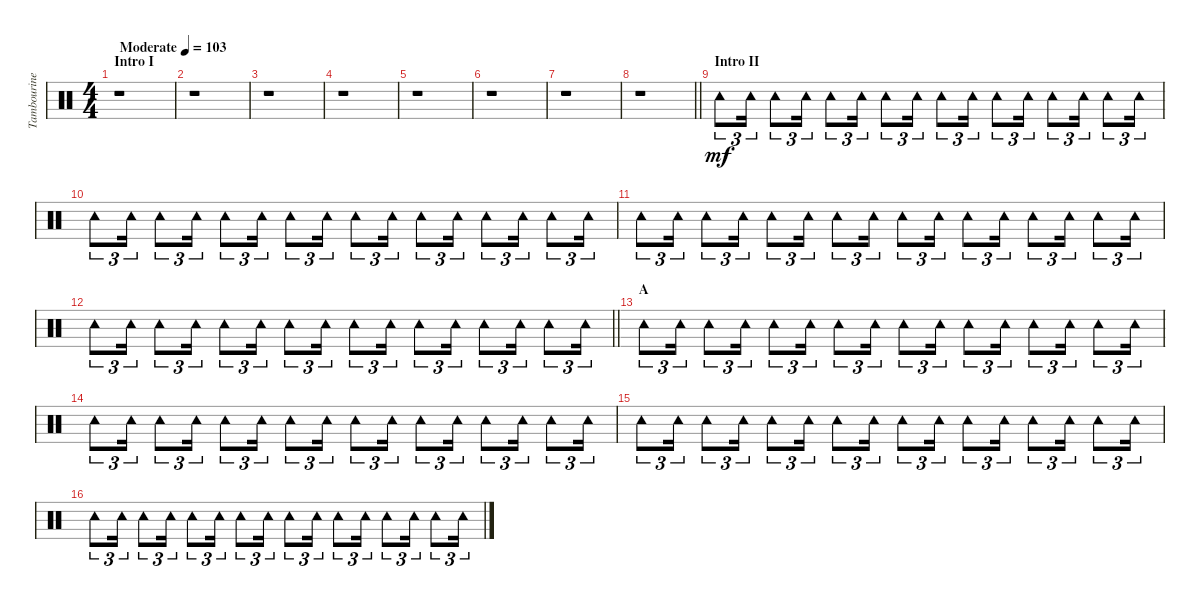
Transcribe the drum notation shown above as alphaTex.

\track ("Tambourine" "Tambourine") {instrument percussion}
\staff {score}
\articulation defaults
\ts (4 4)
\section ("" "Intro I")
\tempo (103 "Moderate")
\clef neutral
\ks c
r.1{dy mf} |
r.1 |
r.1 |
r.1 |
r.1 |
r.1 |
r.1 |
\barLineRight lightlight
r.1 |
\section ("" "Intro II")
"Tambourine (hit)".8{tu (3 2)} "Tambourine (hit)".16{tu (3 2)} "Tambourine (hit)".8{tu (3 2)} "Tambourine (hit)".16{tu (3 2)} "Tambourine (hit)".8{tu (3 2)} "Tambourine (hit)".16{tu (3 2)} "Tambourine (hit)".8{tu (3 2)} "Tambourine (hit)".16{tu (3 2)} "Tambourine (hit)".8{tu (3 2)} "Tambourine (hit)".16{tu (3 2)} "Tambourine (hit)".8{tu (3 2)} "Tambourine (hit)".16{tu (3 2)} "Tambourine (hit)".8{tu (3 2)} "Tambourine (hit)".16{tu (3 2)} "Tambourine (hit)".8{tu (3 2)} "Tambourine (hit)".16{tu (3 2)} |
"Tambourine (hit)".8{tu (3 2)} "Tambourine (hit)".16{tu (3 2)} "Tambourine (hit)".8{tu (3 2)} "Tambourine (hit)".16{tu (3 2)} "Tambourine (hit)".8{tu (3 2)} "Tambourine (hit)".16{tu (3 2)} "Tambourine (hit)".8{tu (3 2)} "Tambourine (hit)".16{tu (3 2)} "Tambourine (hit)".8{tu (3 2)} "Tambourine (hit)".16{tu (3 2)} "Tambourine (hit)".8{tu (3 2)} "Tambourine (hit)".16{tu (3 2)} "Tambourine (hit)".8{tu (3 2)} "Tambourine (hit)".16{tu (3 2)} "Tambourine (hit)".8{tu (3 2)} "Tambourine (hit)".16{tu (3 2)} |
"Tambourine (hit)".8{tu (3 2)} "Tambourine (hit)".16{tu (3 2)} "Tambourine (hit)".8{tu (3 2)} "Tambourine (hit)".16{tu (3 2)} "Tambourine (hit)".8{tu (3 2)} "Tambourine (hit)".16{tu (3 2)} "Tambourine (hit)".8{tu (3 2)} "Tambourine (hit)".16{tu (3 2)} "Tambourine (hit)".8{tu (3 2)} "Tambourine (hit)".16{tu (3 2)} "Tambourine (hit)".8{tu (3 2)} "Tambourine (hit)".16{tu (3 2)} "Tambourine (hit)".8{tu (3 2)} "Tambourine (hit)".16{tu (3 2)} "Tambourine (hit)".8{tu (3 2)} "Tambourine (hit)".16{tu (3 2)} |
\barLineRight lightlight "Tambourine (hit)".8{tu (3 2)} "Tambourine (hit)".16{tu (3 2)} "Tambourine (hit)".8{tu (3 2)} "Tambourine (hit)".16{tu (3 2)} "Tambourine (hit)".8{tu (3 2)} "Tambourine (hit)".16{tu (3 2)} "Tambourine (hit)".8{tu (3 2)} "Tambourine (hit)".16{tu (3 2)} "Tambourine (hit)".8{tu (3 2)} "Tambourine (hit)".16{tu (3 2)} "Tambourine (hit)".8{tu (3 2)} "Tambourine (hit)".16{tu (3 2)} "Tambourine (hit)".8{tu (3 2)} "Tambourine (hit)".16{tu (3 2)} "Tambourine (hit)".8{tu (3 2)} "Tambourine (hit)".16{tu (3 2)}
|
\section ("" "A")
"Tambourine (hit)".8{tu (3 2)} "Tambourine (hit)".16{tu (3 2)} "Tambourine (hit)".8{tu (3 2)} "Tambourine (hit)".16{tu (3 2)} "Tambourine (hit)".8{tu (3 2)} "Tambourine (hit)".16{tu (3 2)} "Tambourine (hit)".8{tu (3 2)} "Tambourine (hit)".16{tu (3 2)} "Tambourine (hit)".8{tu (3 2)} "Tambourine (hit)".16{tu (3 2)} "Tambourine (hit)".8{tu (3 2)} "Tambourine (hit)".16{tu (3 2)} "Tambourine (hit)".8{tu (3 2)} "Tambourine (hit)".16{tu (3 2)} "Tambourine (hit)".8{tu (3 2)} "Tambourine (hit)".16{tu (3 2)} |
"Tambourine (hit)".8{tu (3 2)} "Tambourine (hit)".16{tu (3 2)} "Tambourine (hit)".8{tu (3 2)} "Tambourine (hit)".16{tu (3 2)} "Tambourine (hit)".8{tu (3 2)} "Tambourine (hit)".16{tu (3 2)} "Tambourine (hit)".8{tu (3 2)} "Tambourine (hit)".16{tu (3 2)} "Tambourine (hit)".8{tu (3 2)} "Tambourine (hit)".16{tu (3 2)} "Tambourine (hit)".8{tu (3 2)} "Tambourine (hit)".16{tu (3 2)} "Tambourine (hit)".8{tu (3 2)} "Tambourine (hit)".16{tu (3 2)} "Tambourine (hit)".8{tu (3 2)} "Tambourine (hit)".16{tu (3 2)} |
"Tambourine (hit)".8{tu (3 2)} "Tambourine (hit)".16{tu (3 2)} "Tambourine (hit)".8{tu (3 2)} "Tambourine (hit)".16{tu (3 2)} "Tambourine (hit)".8{tu (3 2)} "Tambourine (hit)".16{tu (3 2)} "Tambourine (hit)".8{tu (3 2)} "Tambourine (hit)".16{tu (3 2)} "Tambourine (hit)".8{tu (3 2)} "Tambourine (hit)".16{tu (3 2)} "Tambourine (hit)".8{tu (3 2)} "Tambourine (hit)".16{tu (3 2)} "Tambourine (hit)".8{tu (3 2)} "Tambourine (hit)".16{tu (3 2)} "Tambourine (hit)".8{tu (3 2)} "Tambourine (hit)".16{tu (3 2)} |
"Tambourine (hit)".8{tu (3 2)} "Tambourine (hit)".16{tu (3 2)} "Tambourine (hit)".8{tu (3 2)} "Tambourine (hit)".16{tu (3 2)} "Tambourine (hit)".8{tu (3 2)} "Tambourine (hit)".16{tu (3 2)} "Tambourine (hit)".8{tu (3 2)} "Tambourine (hit)".16{tu (3 2)} "Tambourine (hit)".8{tu (3 2)} "Tambourine (hit)".16{tu (3 2)} "Tambourine (hit)".8{tu (3 2)} "Tambourine (hit)".16{tu (3 2)} "Tambourine (hit)".8{tu (3 2)} "Tambourine (hit)".16{tu (3 2)} "Tambourine (hit)".8{tu (3 2)} "Tambourine (hit)".16{tu (3 2)}
